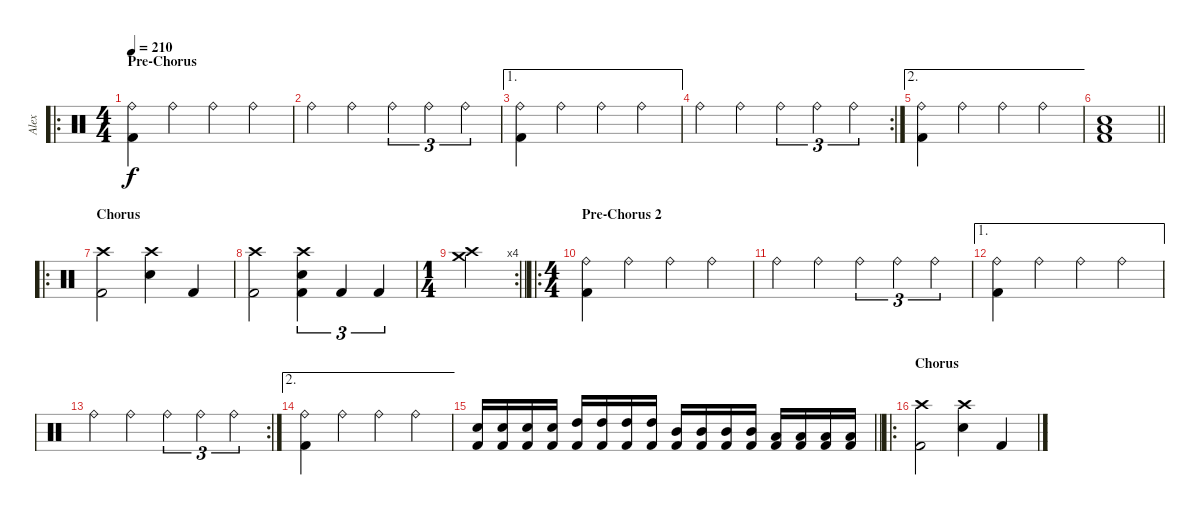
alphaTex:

\track ("Alex" "Alex") {instrument percussion}
\staff {score}
\articulation defaults
\ro
\ts (4 4)
\section ("" "Pre-Chorus")
\tempo 210
\clef neutral
\ks c
("Ride (bell)" "Kick (hit) 2").4{dy f} "Ride (bell)".4 "Ride (bell)".4 "Ride (bell)".4 |
"Ride (bell)".4 "Ride (bell)".4 "Ride (bell)".4{tu (3 2)} "Ride (bell)".4{tu (3 2)} "Ride (bell)".4{tu (3 2)} |
\ae 1
("Ride (bell)" "Kick (hit) 2").4 "Ride (bell)".4 "Ride (bell)".4 "Ride (bell)".4 |
\rc 2 "Ride (bell)".4 "Ride (bell)".4 "Ride (bell)".4{tu (3 2)} "Ride (bell)".4{tu (3 2)} "Ride (bell)".4{tu (3 2)}
|
\ae 2
("Ride (bell)" "Kick (hit) 2").4 "Ride (bell)".4 "Ride (bell)".4 "Ride (bell)".4 |
\barLineRight lightlight
("Low Floor Tom (hit)" "Electric Snare (hit)" "Kick (hit) 2").1 |
\ro
\section ("" "Chorus")
("Crash high (hit)" "Kick (hit) 2").2 ("Crash high (hit)" "Electric Snare (hit)").4 "Kick (hit) 2".4 |
("Crash high (hit)" "Kick (hit) 2").2 ("Crash high (hit)" "Electric Snare (hit)" "Kick (hit) 2").4{tu (3 2)} "Kick (hit) 2".4{tu (3 2)} "Kick (hit) 2".4{tu (3 2)} |
\rc 4
\ts (1 4)
\barLineRight lightlight
("Crash high (hit)" "Crash medium (hit)").4 |
\ro
\ts (4 4)
\section ("" "Pre-Chorus 2")
("Ride (bell)" "Kick (hit) 2").4 "Ride (bell)".4 "Ride (bell)".4 "Ride (bell)".4 |
"Ride (bell)".4 "Ride (bell)".4 "Ride (bell)".4{tu (3 2)} "Ride (bell)".4{tu (3 2)} "Ride (bell)".4{tu (3 2)} |
\ae 1
("Ride (bell)" "Kick (hit) 2").4 "Ride (bell)".4 "Ride (bell)".4 "Ride (bell)".4 |
\rc 2 "Ride (bell)".4 "Ride (bell)".4 "Ride (bell)".4{tu (3 2)} "Ride (bell)".4{tu (3 2)} "Ride (bell)".4{tu (3 2)}
|
\ae 2
("Ride (bell)" "Kick (hit) 2").4 "Ride (bell)".4 "Ride (bell)".4 "Ride (bell)".4 |
\barLineRight lightlight
("Electric Snare (hit)" "Kick (hit) 2").16 ("Electric Snare (hit)" "Kick (hit) 2").16 ("Electric Snare (hit)" "Kick (hit) 2").16 ("Electric Snare (hit)" "Kick (hit) 2").16 ("High Tom (hit)" "Kick (hit) 2").16 ("High Tom (hit)" "Kick (hit) 2").16 ("High Tom (hit)" "Kick (hit) 2").16 ("High Tom (hit)" "Kick (hit) 2").16 ("Mid Tom (hit)" "Kick (hit) 2").16 ("Mid Tom (hit)" "Kick (hit) 2").16 ("Mid Tom (hit)" "Kick (hit) 2").16 ("Mid Tom (hit)" "Kick (hit) 2").16 ("Low Tom (hit)" "Kick (hit) 2").16 ("Low Tom (hit)" "Kick (hit) 2").16 ("Low Tom (hit)" "Kick (hit) 2").16 ("Low Tom (hit)" "Kick (hit) 2").16 |
\ro
\section ("" "Chorus")
("Crash high (hit)" "Kick (hit) 2").2 ("Crash high (hit)" "Electric Snare (hit)").4 "Kick (hit) 2".4
